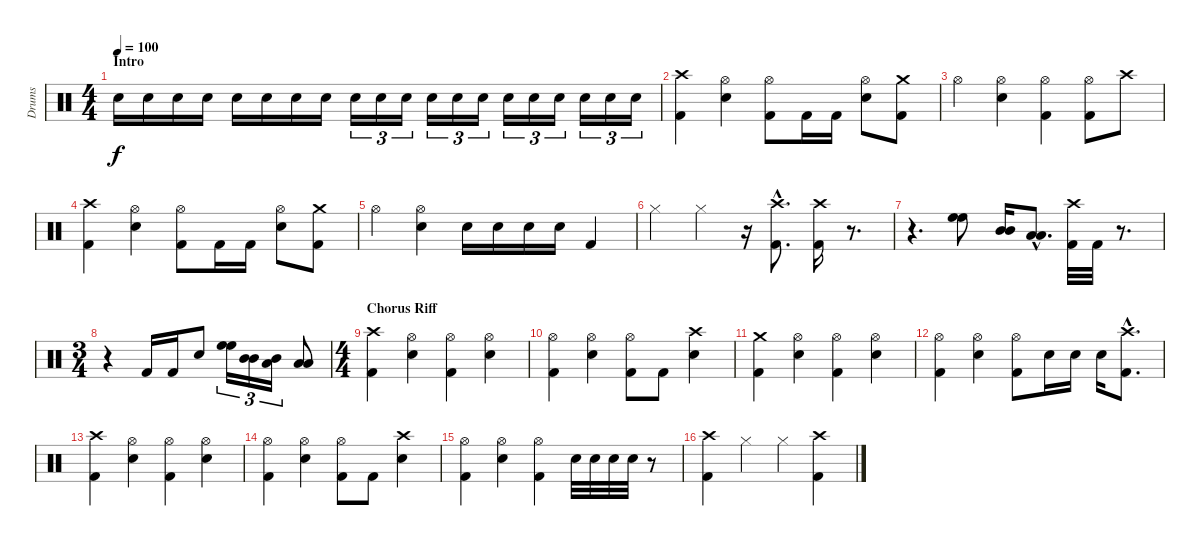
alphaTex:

\track ("Drums" "Drums") {instrument percussion}
\staff {score}
\articulation defaults
\ts (4 4)
\section ("" "Intro")
\tempo 100
\clef neutral
\ks c "Snare (hit) 2".16{dy f} "Snare (hit) 2".16 "Snare (hit) 2".16 "Snare (hit) 2".16 "Snare (hit) 2".16 "Snare (hit) 2".16 "Snare (hit) 2".16 "Snare (hit) 2".16 "Snare (hit) 2".16{tu (3 2)} "Snare (hit) 2".16{tu (3 2)} "Snare (hit) 2".16{tu (3 2)} "Snare (hit) 2".16{tu (3 2)} "Snare (hit) 2".16{tu (3 2)} "Snare (hit) 2".16{tu (3 2)} "Snare (hit) 2".16{tu (3 2)} "Snare (hit) 2".16{tu (3 2)} "Snare (hit) 2".16{tu (3 2)} "Snare (hit) 2".16{tu (3 2)} "Snare (hit) 2".16{tu (3 2)} "Snare (hit) 2".16{tu (3 2)}
|
("Crash high (hit)" "Kick (hit) 2").4 ("Hi-Hat (open)" "Snare (hit) 2").4 ("Hi-Hat (open)" "Kick (hit) 2").8 "Kick (hit) 2".16 "Kick (hit) 2".16 ("Hi-Hat (open)" "Snare (hit) 2").8 ("Crash medium (hit)" "Kick (hit) 2").8 |
"Hi-Hat (open)".4 ("Hi-Hat (open)" "Snare (hit) 2").4 ("Hi-Hat (open)" "Kick (hit) 2").4 ("Hi-Hat (open)" "Kick (hit) 2").8 "Crash high (hit)".8 |
("Crash high (hit)" "Kick (hit) 2").4 ("Hi-Hat (open)" "Snare (hit) 2").4 ("Hi-Hat (open)" "Kick (hit) 2").8 "Kick (hit) 2".16 "Kick (hit) 2".16 ("Hi-Hat (open)" "Snare (hit) 2").8 ("Crash medium (hit)" "Kick (hit) 2").8 |
"Hi-Hat (open)".4 ("Hi-Hat (open)" "Snare (hit) 2").4 "Snare (hit) 2".16 "Snare (hit) 2".16 "Snare (hit) 2".16 "Snare (hit) 2".16 "Kick (hit) 2".4 |
"Hi-Hat (closed)".4 "Hi-Hat (closed)".4 r.16 ("Crash high (hit)"{hac} "Kick (hit) 2"{hac}).8{d} ("Crash high (hit)" "Kick (hit) 2").16 r.8{d} |
r.4{d} ("High Floor Tom (hit)" "High Floor Tom (hit)").8 ("Mid Tom (hit)" "Mid Tom (hit)").16 ("Low Tom (hit)"{hac} "Low Tom (hit)"{hac}).8{d} ("Crash high (hit)" "Kick (hit) 2").32 "Kick (hit) 2".32 r.8{d} |
\ts (3 4)
r.4 "Kick (hit) 2".16 "Kick (hit) 2".16 "Snare (hit) 2".8 ("High Floor Tom (hit)" "High Floor Tom (hit)").16{tu (3 2)} ("Mid Tom (hit)" "Mid Tom (hit)").16{tu (3 2)} ("Mid Tom (hit)" "Low Tom (hit)").16{tu (3 2)} ("Low Floor Tom (hit)" "Low Floor Tom (hit)").8 |
\ts (4 4)
\section ("" "Chorus Riff")
("Crash high (hit)" "Kick (hit) 2").4 ("Hi-Hat (open)" "Snare (hit) 2").4 ("Hi-Hat (open)" "Kick (hit) 2").4 ("Hi-Hat (open)" "Snare (hit) 2").4 |
("Hi-Hat (open)" "Kick (hit) 2").4 ("Hi-Hat (open)" "Snare (hit) 2").4 ("Hi-Hat (open)" "Kick (hit) 2").8 "Kick (hit) 2".8 ("Crash high (hit)" "Snare (hit) 2").4 |
("Crash medium (hit)" "Kick (hit) 2").4 ("Hi-Hat (open)" "Snare (hit) 2").4 ("Hi-Hat (open)" "Kick (hit) 2").4 ("Hi-Hat (open)" "Snare (hit) 2").4 |
("Hi-Hat (open)" "Kick (hit) 2").4 ("Hi-Hat (open)" "Snare (hit) 2").4 ("Hi-Hat (open)" "Kick (hit) 2").8 "Snare (hit) 2".16 "Snare (hit) 2".16 "Snare (hit) 2".16 ("Crash high (hit)"{hac} "Kick (hit) 2"{hac}).8{d} |
("Crash high (hit)" "Kick (hit) 2").4 ("Hi-Hat (open)" "Snare (hit) 2").4 ("Hi-Hat (open)" "Kick (hit) 2").4 ("Hi-Hat (open)" "Snare (hit) 2").4 |
("Hi-Hat (open)" "Kick (hit) 2").4 ("Hi-Hat (open)" "Snare (hit) 2").4 ("Hi-Hat (open)" "Kick (hit) 2").8 "Kick (hit) 2".8 ("Crash high (hit)" "Snare (hit) 2").4 |
("Hi-Hat (open)" "Kick (hit) 2").4 ("Hi-Hat (open)" "Snare (hit) 2").4 ("Hi-Hat (open)" "Kick (hit) 2").4 "Snare (hit) 2".32 "Snare (hit) 2".32 "Snare (hit) 2".32 "Snare (hit) 2".32 r.8 |
("Crash high (hit)" "Kick (hit) 2").4 "Hi-Hat (closed)".4 "Hi-Hat (closed)".4 ("Crash high (hit)" "Kick (hit) 2").4
